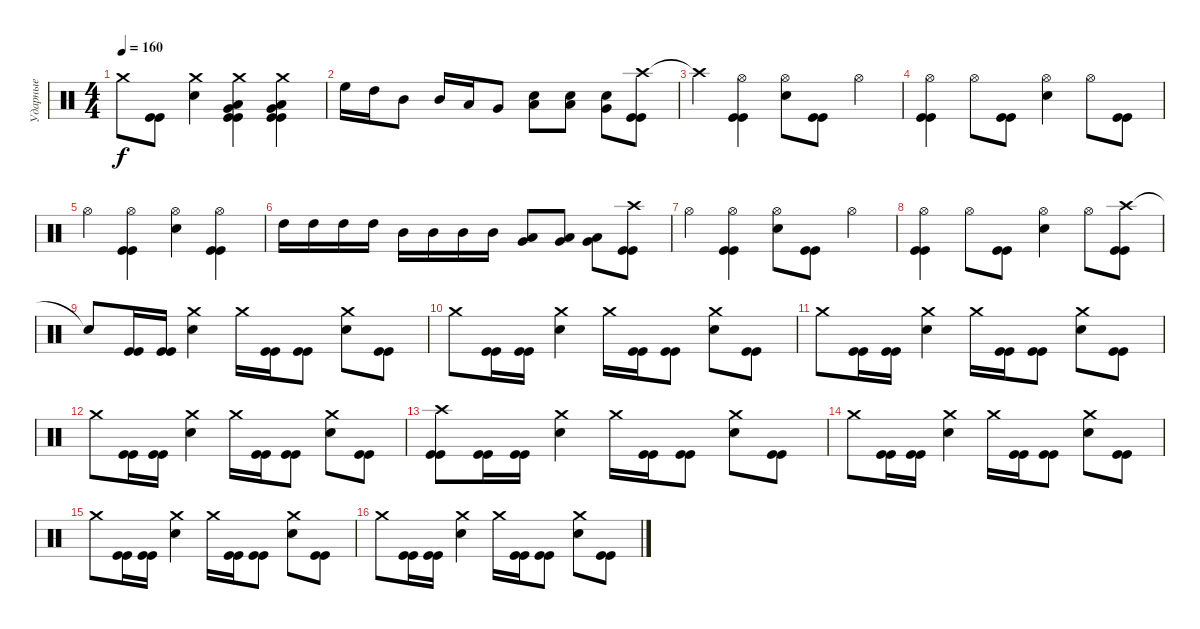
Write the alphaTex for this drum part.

\track ("Ударные" "Ударные") {instrument percussion}
\staff {score}
\articulation defaults
\ts (4 4)
\tempo 160
\clef neutral
\ks c "Crash medium (hit)".8{dy f}
("Kick (hit)" "Kick (hit)").8 ("Crash medium (hit)" "Snare (hit) 2").4 ("Crash medium (hit)" "Very Low Tom (hit)" "Low Tom (hit)" "Kick (hit)" "Kick (hit)").4 ("Crash medium (hit)" "Very Low Tom (hit)" "Low Tom (hit)" "Kick (hit)" "Kick (hit)").4 |
"High Floor Tom (hit)".16 "High Tom (hit)".16 "Mid Tom (hit)".8 "Mid Tom (hit)".16 "Low Tom (hit)".16 "Very Low Tom (hit)".8 ("Snare (hit) 2" "Low Tom (hit)").8 ("Snare (hit) 2" "Low Tom (hit)").8 ("Snare (hit) 2" "Very Low Tom (hit)").8 ("Crash high (hit)" "Kick (hit)" "Kick (hit)").8 |
"Crash high (hit)"{t}.4 ("Hi-Hat (open)" "Kick (hit)" "Kick (hit)").4 ("Hi-Hat (open)" "Snare (hit) 2").8 ("Kick (hit)" "Kick (hit)").8 "Hi-Hat (open)".4 |
("Hi-Hat (open)" "Kick (hit)" "Kick (hit)").4 "Hi-Hat (open)".8 ("Kick (hit)" "Kick (hit)").8 ("Hi-Hat (open)" "Snare (hit) 2").4 "Hi-Hat (open)".8 ("Kick (hit)" "Kick (hit)").8 |
"Hi-Hat (open)".4 ("Hi-Hat (open)" "Kick (hit)" "Kick (hit)").4 ("Hi-Hat (open)" "Snare (hit) 2").4 ("Hi-Hat (open)" "Kick (hit)" "Kick (hit)").4 |
"High Tom (hit)".16 "High Tom (hit)".16 "High Tom (hit)".16 "High Tom (hit)".16 "Mid Tom (hit)".16 "Mid Tom (hit)".16 "Mid Tom (hit)".16 "Mid Tom (hit)".16 ("Very Low Tom (hit)" "Low Tom (hit)").8 ("Very Low Tom (hit)" "Low Tom (hit)").8 ("Low Floor Tom (hit)" "Very Low Tom (hit)").8 ("Crash high (hit)" "Kick (hit)" "Kick (hit)").8 |
"Hi-Hat (open)".4 ("Hi-Hat (open)" "Kick (hit)" "Kick (hit)").4 ("Hi-Hat (open)" "Snare (hit) 2").8 ("Kick (hit)" "Kick (hit)").8 "Hi-Hat (open)".4 |
("Hi-Hat (open)" "Kick (hit)" "Kick (hit)").4 "Hi-Hat (open)".8 ("Kick (hit)" "Kick (hit)").8 ("Hi-Hat (open)" "Snare (hit) 2").4 "Hi-Hat (open)".8 ("Crash high (hit)" "Kick (hit)" "Kick (hit)").8 |
"Snare (hit)"{t}.8 ("Kick (hit)" "Kick (hit)").16 ("Kick (hit)" "Kick (hit)").16 ("Crash medium (hit)" "Snare (hit) 2").4 "Crash medium (hit)".16 ("Kick (hit)" "Kick (hit)").16 ("Kick (hit)" "Kick (hit)").8 ("Crash medium (hit)" "Snare (hit) 2").8 ("Kick (hit)" "Kick (hit)").8 |
"Crash medium (hit)".8 ("Kick (hit)" "Kick (hit)").16 ("Kick (hit)" "Kick (hit)").16 ("Crash medium (hit)" "Snare (hit) 2").4 "Crash medium (hit)".16 ("Kick (hit)" "Kick (hit)").16 ("Kick (hit)" "Kick (hit)").8 ("Crash medium (hit)" "Snare (hit) 2").8 ("Kick (hit)" "Kick (hit)").8 |
"Crash medium (hit)".8 ("Kick (hit)" "Kick (hit)").16 ("Kick (hit)" "Kick (hit)").16 ("Crash medium (hit)" "Snare (hit) 2").4 "Crash medium (hit)".16 ("Kick (hit)" "Kick (hit)").16 ("Kick (hit)" "Kick (hit)").8 ("Crash medium (hit)" "Snare (hit) 2").8 ("Kick (hit)" "Kick (hit)").8 |
"Crash medium (hit)".8 ("Kick (hit)" "Kick (hit)").16 ("Kick (hit)" "Kick (hit)").16 ("Crash medium (hit)" "Snare (hit) 2").4 "Crash medium (hit)".16 ("Kick (hit)" "Kick (hit)").16 ("Kick (hit)" "Kick (hit)").8 ("Crash medium (hit)" "Snare (hit) 2").8 ("Kick (hit)" "Kick (hit)").8 |
("Crash high (hit)" "Kick (hit)" "Kick (hit)").8 ("Kick (hit)" "Kick (hit)").16 ("Kick (hit)" "Kick (hit)").16 ("Crash medium (hit)" "Snare (hit) 2").4 "Crash medium (hit)".16 ("Kick (hit)" "Kick (hit)").16 ("Kick (hit)" "Kick (hit)").8 ("Crash medium (hit)" "Snare (hit) 2").8 ("Kick (hit)" "Kick (hit)").8 |
"Crash medium (hit)".8 ("Kick (hit)" "Kick (hit)").16 ("Kick (hit)" "Kick (hit)").16 ("Crash medium (hit)" "Snare (hit) 2").4 "Crash medium (hit)".16 ("Kick (hit)" "Kick (hit)").16 ("Kick (hit)" "Kick (hit)").8 ("Crash medium (hit)" "Snare (hit) 2").8 ("Kick (hit)" "Kick (hit)").8 |
"Crash medium (hit)".8 ("Kick (hit)" "Kick (hit)").16 ("Kick (hit)" "Kick (hit)").16 ("Crash medium (hit)" "Snare (hit) 2").4 "Crash medium (hit)".16 ("Kick (hit)" "Kick (hit)").16 ("Kick (hit)" "Kick (hit)").8 ("Crash medium (hit)" "Snare (hit) 2").8 ("Kick (hit)" "Kick (hit)").8 |
"Crash medium (hit)".8 ("Kick (hit)" "Kick (hit)").16 ("Kick (hit)" "Kick (hit)").16 ("Crash medium (hit)" "Snare (hit) 2").4 "Crash medium (hit)".16 ("Kick (hit)" "Kick (hit)").16 ("Kick (hit)" "Kick (hit)").8 ("Crash medium (hit)" "Snare (hit) 2").8 ("Kick (hit)" "Kick (hit)").8
